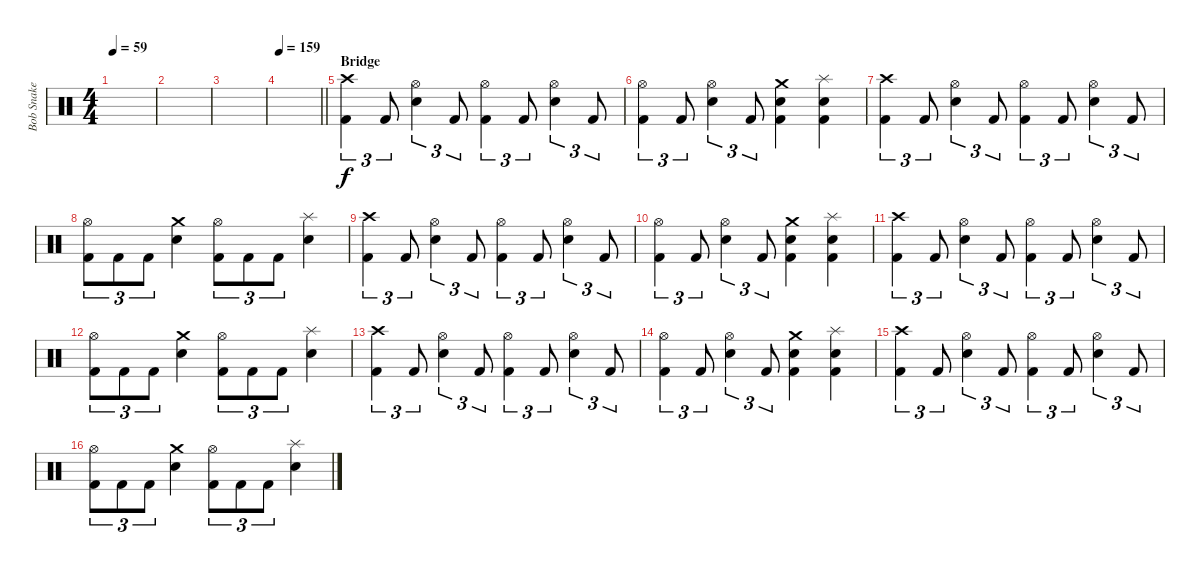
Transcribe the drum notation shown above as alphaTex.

\track ("Bob Snake" "Bob Snake") {instrument percussion}
\staff {score}
\articulation defaults
\ts (4 4)
\tempo 59
\clef neutral
\ks c
|
|
|
\tempo 159
\barLineRight lightlight
|
\section ("" "Bridge")
("Crash high (hit)" "Kick (hit) 2").4{tu (3 2)} "Kick (hit) 2".8{tu (3 2)} ("Hi-Hat (open)" "Snare (hit) 2").4{tu (3 2)} "Kick (hit) 2".8{tu (3 2)} ("Hi-Hat (open)" "Kick (hit) 2").4{tu (3 2)} "Kick (hit) 2".8{tu (3 2)} ("Hi-Hat (open)" "Snare (hit) 2").4{tu (3 2)} "Kick (hit) 2".8{tu (3 2)} |
("Hi-Hat (open)" "Kick (hit) 2").4{tu (3 2)} "Kick (hit) 2".8{tu (3 2)} ("Hi-Hat (open)" "Snare (hit) 2").4{tu (3 2)} "Kick (hit) 2".8{tu (3 2)} ("Crash medium (hit)" "Snare (hit) 2" "Kick (hit) 2").4 ("Splash (hit)" "Snare (hit) 2" "Kick (hit) 2").4 |
("Crash high (hit)" "Kick (hit) 2").4{tu (3 2)} "Kick (hit) 2".8{tu (3 2)} ("Hi-Hat (open)" "Snare (hit) 2").4{tu (3 2)} "Kick (hit) 2".8{tu (3 2)} ("Hi-Hat (open)" "Kick (hit) 2").4{tu (3 2)} "Kick (hit) 2".8{tu (3 2)} ("Hi-Hat (open)" "Snare (hit) 2").4{tu (3 2)} "Kick (hit) 2".8{tu (3 2)} |
("Hi-Hat (open)" "Kick (hit) 2").8{tu (3 2)} "Kick (hit) 2".8{tu (3 2)} "Kick (hit) 2".8{tu (3 2)} ("Crash medium (hit)" "Snare (hit) 2").4 ("Hi-Hat (open)" "Kick (hit) 2").8{tu (3 2)} "Kick (hit) 2".8{tu (3 2)} "Kick (hit) 2".8{tu (3 2)} ("Splash (hit)" "Snare (hit) 2").4 |
("Crash high (hit)" "Kick (hit) 2").4{tu (3 2)} "Kick (hit) 2".8{tu (3 2)} ("Hi-Hat (open)" "Snare (hit) 2").4{tu (3 2)} "Kick (hit) 2".8{tu (3 2)} ("Hi-Hat (open)" "Kick (hit) 2").4{tu (3 2)} "Kick (hit) 2".8{tu (3 2)} ("Hi-Hat (open)" "Snare (hit) 2").4{tu (3 2)} "Kick (hit) 2".8{tu (3 2)} |
("Hi-Hat (open)" "Kick (hit) 2").4{tu (3 2)} "Kick (hit) 2".8{tu (3 2)} ("Hi-Hat (open)" "Snare (hit) 2").4{tu (3 2)} "Kick (hit) 2".8{tu (3 2)} ("Crash medium (hit)" "Snare (hit) 2" "Kick (hit) 2").4 ("Splash (hit)" "Snare (hit) 2" "Kick (hit) 2").4 |
("Crash high (hit)" "Kick (hit) 2").4{tu (3 2)} "Kick (hit) 2".8{tu (3 2)} ("Hi-Hat (open)" "Snare (hit) 2").4{tu (3 2)} "Kick (hit) 2".8{tu (3 2)} ("Hi-Hat (open)" "Kick (hit) 2").4{tu (3 2)} "Kick (hit) 2".8{tu (3 2)} ("Hi-Hat (open)" "Snare (hit) 2").4{tu (3 2)} "Kick (hit) 2".8{tu (3 2)} |
("Hi-Hat (open)" "Kick (hit) 2").8{tu (3 2)} "Kick (hit) 2".8{tu (3 2)} "Kick (hit) 2".8{tu (3 2)} ("Crash medium (hit)" "Snare (hit) 2").4 ("Hi-Hat (open)" "Kick (hit) 2").8{tu (3 2)} "Kick (hit) 2".8{tu (3 2)} "Kick (hit) 2".8{tu (3 2)} ("Splash (hit)" "Snare (hit) 2").4 |
("Crash high (hit)" "Kick (hit) 2").4{tu (3 2)} "Kick (hit) 2".8{tu (3 2)} ("Hi-Hat (open)" "Snare (hit) 2").4{tu (3 2)} "Kick (hit) 2".8{tu (3 2)} ("Hi-Hat (open)" "Kick (hit) 2").4{tu (3 2)} "Kick (hit) 2".8{tu (3 2)} ("Hi-Hat (open)" "Snare (hit) 2").4{tu (3 2)} "Kick (hit) 2".8{tu (3 2)} |
("Hi-Hat (open)" "Kick (hit) 2").4{tu (3 2)} "Kick (hit) 2".8{tu (3 2)} ("Hi-Hat (open)" "Snare (hit) 2").4{tu (3 2)} "Kick (hit) 2".8{tu (3 2)} ("Crash medium (hit)" "Snare (hit) 2" "Kick (hit) 2").4 ("Splash (hit)" "Snare (hit) 2" "Kick (hit) 2").4 |
("Crash high (hit)" "Kick (hit) 2").4{tu (3 2)} "Kick (hit) 2".8{tu (3 2)} ("Hi-Hat (open)" "Snare (hit) 2").4{tu (3 2)} "Kick (hit) 2".8{tu (3 2)} ("Hi-Hat (open)" "Kick (hit) 2").4{tu (3 2)} "Kick (hit) 2".8{tu (3 2)} ("Hi-Hat (open)" "Snare (hit) 2").4{tu (3 2)} "Kick (hit) 2".8{tu (3 2)} |
("Hi-Hat (open)" "Kick (hit) 2").8{tu (3 2)} "Kick (hit) 2".8{tu (3 2)} "Kick (hit) 2".8{tu (3 2)} ("Crash medium (hit)" "Snare (hit) 2").4 ("Hi-Hat (open)" "Kick (hit) 2").8{tu (3 2)} "Kick (hit) 2".8{tu (3 2)} "Kick (hit) 2".8{tu (3 2)} ("Splash (hit)" "Snare (hit) 2").4
